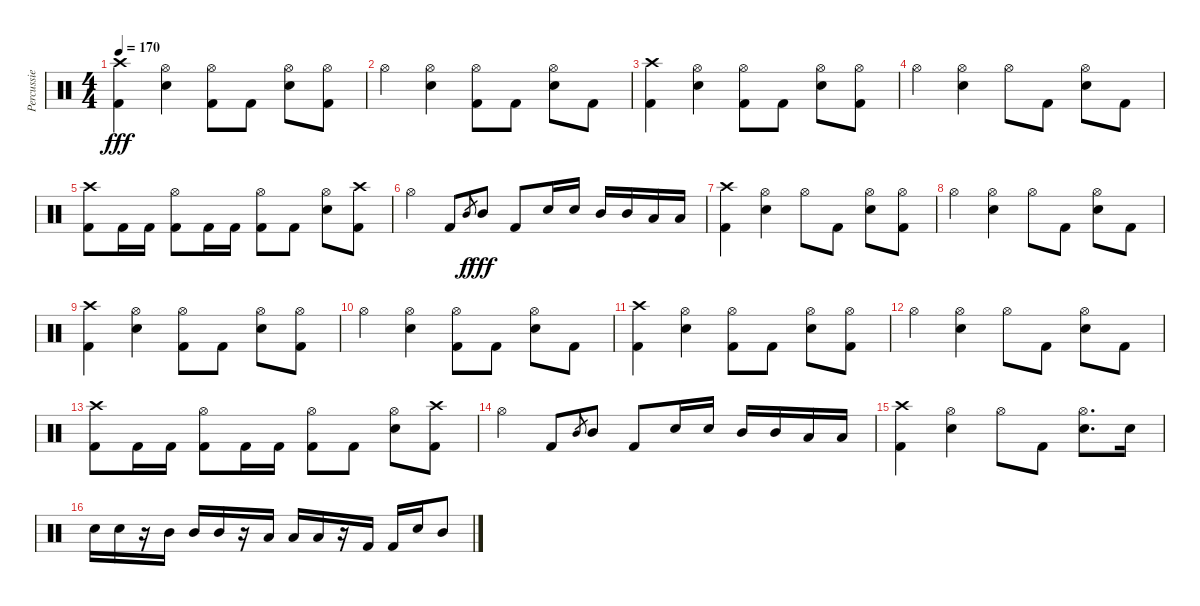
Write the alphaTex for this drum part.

\track ("Percussie" "Percussie") {instrument percussion}
\staff {score}
\articulation defaults
\ts (4 4)
\tempo 170
\clef neutral
\ks c
("Crash high (hit)" "Kick (hit) 2").4{dy fff} ("Hi-Hat (open)" "Electric Snare (hit)").4 ("Hi-Hat (open)" "Kick (hit) 2").8 "Kick (hit) 2".8 ("Hi-Hat (open)" "Electric Snare (hit)").8 ("Hi-Hat (open)" "Kick (hit) 2").8 |
"Hi-Hat (open)".4 ("Hi-Hat (open)" "Electric Snare (hit)").4 ("Hi-Hat (open)" "Kick (hit) 2").8 "Kick (hit) 2".8 ("Hi-Hat (open)" "Electric Snare (hit)").8 "Kick (hit) 2".8 |
("Crash high (hit)" "Kick (hit) 2").4 ("Hi-Hat (open)" "Electric Snare (hit)").4 ("Hi-Hat (open)" "Kick (hit) 2").8 "Kick (hit) 2".8 ("Hi-Hat (open)" "Electric Snare (hit)").8 ("Hi-Hat (open)" "Kick (hit) 2").8 |
"Hi-Hat (open)".4 ("Hi-Hat (open)" "Electric Snare (hit)").4 "Hi-Hat (open)".8 "Kick (hit) 2".8 ("Hi-Hat (open)" "Electric Snare (hit)").8 "Kick (hit) 2".8 |
("Crash high (hit)" "Kick (hit) 2").8 "Kick (hit) 2".16 "Kick (hit) 2".16 ("Hi-Hat (open)" "Kick (hit) 2").8 "Kick (hit) 2".16 "Kick (hit) 2".16 ("Hi-Hat (open)" "Kick (hit) 2").8 "Kick (hit) 2".8 ("Hi-Hat (open)" "Electric Snare (hit)").8 ("Crash high (hit)" "Kick (hit) 2").8 |
"Hi-Hat (open)".4 "Kick (hit) 2".8 "Mid Tom (hit)".8{gr dy f} "Mid Tom (hit)".8{dy fff} "Kick (hit) 2".8 "Electric Snare (hit)".16 "Electric Snare (hit)".16 "Mid Tom (hit)".16 "Mid Tom (hit)".16 "Low Tom (hit)".16 "Low Tom (hit)".16 |
("Crash high (hit)" "Kick (hit) 2").4 ("Hi-Hat (open)" "Electric Snare (hit)").4 "Hi-Hat (open)".8 "Kick (hit) 2".8 ("Hi-Hat (open)" "Electric Snare (hit)").8 ("Hi-Hat (open)" "Kick (hit) 2").8 |
"Hi-Hat (open)".4 ("Hi-Hat (open)" "Electric Snare (hit)").4 "Hi-Hat (open)".8 "Kick (hit) 2".8 ("Hi-Hat (open)" "Electric Snare (hit)").8 "Kick (hit) 2".8 |
("Crash high (hit)" "Kick (hit) 2").4 ("Hi-Hat (open)" "Electric Snare (hit)").4 ("Hi-Hat (open)" "Kick (hit) 2").8 "Kick (hit) 2".8 ("Hi-Hat (open)" "Electric Snare (hit)").8 ("Hi-Hat (open)" "Kick (hit) 2").8 |
"Hi-Hat (open)".4 ("Hi-Hat (open)" "Electric Snare (hit)").4 ("Hi-Hat (open)" "Kick (hit) 2").8 "Kick (hit) 2".8 ("Hi-Hat (open)" "Electric Snare (hit)").8 "Kick (hit) 2".8 |
("Crash high (hit)" "Kick (hit) 2").4 ("Hi-Hat (open)" "Electric Snare (hit)").4 ("Hi-Hat (open)" "Kick (hit) 2").8 "Kick (hit) 2".8 ("Hi-Hat (open)" "Electric Snare (hit)").8 ("Hi-Hat (open)" "Kick (hit) 2").8 |
"Hi-Hat (open)".4 ("Hi-Hat (open)" "Electric Snare (hit)").4 "Hi-Hat (open)".8 "Kick (hit) 2".8 ("Hi-Hat (open)" "Electric Snare (hit)").8 "Kick (hit) 2".8 |
("Crash high (hit)" "Kick (hit) 2").8 "Kick (hit) 2".16 "Kick (hit) 2".16 ("Hi-Hat (open)" "Kick (hit) 2").8 "Kick (hit) 2".16 "Kick (hit) 2".16 ("Hi-Hat (open)" "Kick (hit) 2").8 "Kick (hit) 2".8 ("Hi-Hat (open)" "Electric Snare (hit)").8 ("Crash high (hit)" "Kick (hit) 2").8 |
"Hi-Hat (open)".4 "Kick (hit) 2".8 "Mid Tom (hit)".8{gr} "Mid Tom (hit)".8 "Kick (hit) 2".8 "Electric Snare (hit)".16 "Electric Snare (hit)".16 "Mid Tom (hit)".16 "Mid Tom (hit)".16 "Low Tom (hit)".16 "Low Tom (hit)".16 |
("Crash high (hit)" "Kick (hit) 2").4 ("Hi-Hat (open)" "Electric Snare (hit)").4 "Hi-Hat (open)".8 "Kick (hit) 2".8 ("Hi-Hat (open)" "Electric Snare (hit)").8{d} "Electric Snare (hit)".16 |
"Electric Snare (hit)".16 "Electric Snare (hit)".16 r.16 "Mid Tom (hit)".16 "Mid Tom (hit)".16 "Mid Tom (hit)".16 r.16 "Low Tom (hit)".16 "Low Tom (hit)".16 "Low Tom (hit)".16 r.16 "Kick (hit) 2".16 "Kick (hit) 2".16 "Electric Snare (hit)".16 "Mid Tom (hit)".8
